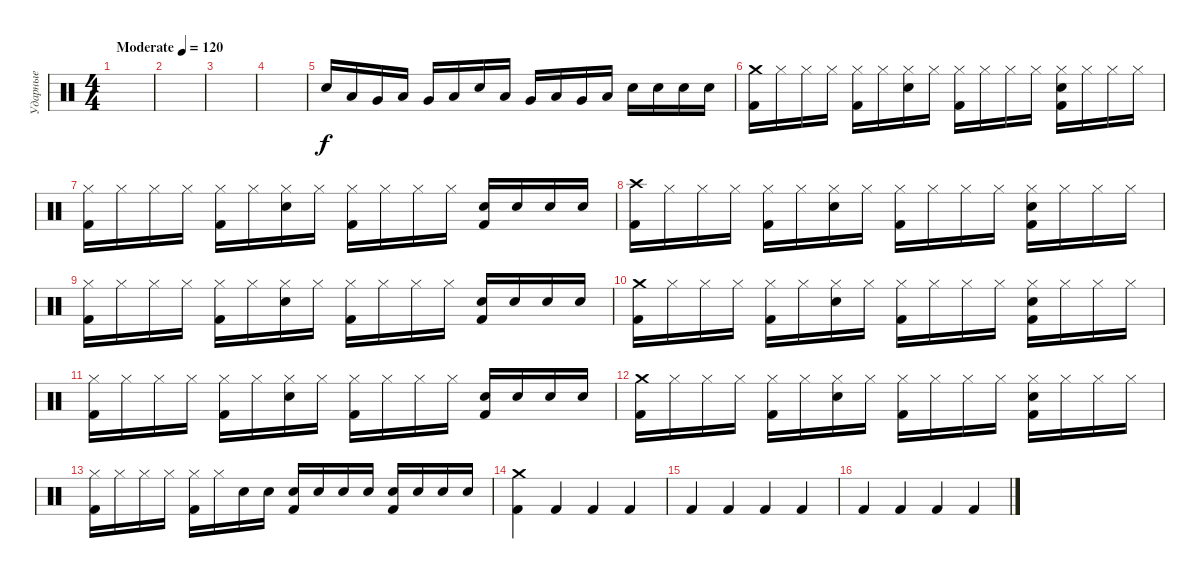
\track ("Ударные" "Ударные") {instrument percussion}
\staff {score}
\articulation defaults
\ts (4 4)
\tempo (120 "Moderate")
\clef neutral
\ks c
|
|
|
|
"Electric Snare (hit)".16 "Low Tom (hit)".16 "Very Low Tom (hit)".16 "Low Tom (hit)".16 "Very Low Tom (hit)".16 "Low Tom (hit)".16 "Electric Snare (hit)".16 "Low Tom (hit)".16 "Very Low Tom (hit)".16 "Low Tom (hit)".16 "Very Low Tom (hit)".16 "Low Tom (hit)".16 "Electric Snare (hit)".16 "Electric Snare (hit)".16 "Electric Snare (hit)".16 "Electric Snare (hit)".16 |
("Crash medium (hit)" "Kick (hit) 2").16 "Hi-Hat (closed)".16 "Hi-Hat (closed)".16 "Hi-Hat (closed)".16 ("Hi-Hat (closed)" "Kick (hit) 2").16 "Hi-Hat (closed)".16 ("Hi-Hat (closed)" "Electric Snare (hit)").16 "Hi-Hat (closed)".16 ("Hi-Hat (closed)" "Kick (hit) 2").16 "Hi-Hat (closed)".16 "Hi-Hat (closed)".16 "Hi-Hat (closed)".16 ("Hi-Hat (closed)" "Kick (hit) 2" "Electric Snare (hit)").16 "Hi-Hat (closed)".16 "Hi-Hat (closed)".16 "Hi-Hat (closed)".16 |
("Hi-Hat (closed)" "Kick (hit) 2").16 "Hi-Hat (closed)".16 "Hi-Hat (closed)".16 "Hi-Hat (closed)".16 ("Hi-Hat (closed)" "Kick (hit) 2").16 "Hi-Hat (closed)".16 ("Hi-Hat (closed)" "Electric Snare (hit)").16 "Hi-Hat (closed)".16 ("Hi-Hat (closed)" "Kick (hit) 2").16 "Hi-Hat (closed)".16 "Hi-Hat (closed)".16 "Hi-Hat (closed)".16 ("Kick (hit) 2" "Electric Snare (hit)").16 "Electric Snare (hit)".16 "Electric Snare (hit)".16 "Electric Snare (hit)".16 |
("Crash high (hit)" "Kick (hit) 2").16 "Hi-Hat (closed)".16 "Hi-Hat (closed)".16 "Hi-Hat (closed)".16 ("Hi-Hat (closed)" "Kick (hit) 2").16 "Hi-Hat (closed)".16 ("Hi-Hat (closed)" "Electric Snare (hit)").16 "Hi-Hat (closed)".16 ("Hi-Hat (closed)" "Kick (hit) 2").16 "Hi-Hat (closed)".16 "Hi-Hat (closed)".16 "Hi-Hat (closed)".16 ("Hi-Hat (closed)" "Electric Snare (hit)" "Kick (hit) 2").16 "Hi-Hat (closed)".16 "Hi-Hat (closed)".16 "Hi-Hat (closed)".16 |
("Hi-Hat (closed)" "Kick (hit) 2").16 "Hi-Hat (closed)".16 "Hi-Hat (closed)".16 "Hi-Hat (closed)".16 ("Hi-Hat (closed)" "Kick (hit) 2").16 "Hi-Hat (closed)".16 ("Hi-Hat (closed)" "Electric Snare (hit)").16 "Hi-Hat (closed)".16 ("Hi-Hat (closed)" "Kick (hit) 2").16 "Hi-Hat (closed)".16 "Hi-Hat (closed)".16 "Hi-Hat (closed)".16 ("Kick (hit) 2" "Electric Snare (hit)").16 "Electric Snare (hit)".16 "Electric Snare (hit)".16 "Electric Snare (hit)".16 |
("Crash medium (hit)" "Kick (hit) 2").16 "Hi-Hat (closed)".16 "Hi-Hat (closed)".16 "Hi-Hat (closed)".16 ("Hi-Hat (closed)" "Kick (hit) 2").16 "Hi-Hat (closed)".16 ("Hi-Hat (closed)" "Electric Snare (hit)").16 "Hi-Hat (closed)".16 ("Hi-Hat (closed)" "Kick (hit) 2").16 "Hi-Hat (closed)".16 "Hi-Hat (closed)".16 "Hi-Hat (closed)".16 ("Hi-Hat (closed)" "Kick (hit) 2" "Electric Snare (hit)").16 "Hi-Hat (closed)".16 "Hi-Hat (closed)".16 "Hi-Hat (closed)".16 |
("Hi-Hat (closed)" "Kick (hit) 2").16 "Hi-Hat (closed)".16 "Hi-Hat (closed)".16 "Hi-Hat (closed)".16 ("Hi-Hat (closed)" "Kick (hit) 2").16 "Hi-Hat (closed)".16 ("Hi-Hat (closed)" "Electric Snare (hit)").16 "Hi-Hat (closed)".16 ("Hi-Hat (closed)" "Kick (hit) 2").16 "Hi-Hat (closed)".16 "Hi-Hat (closed)".16 "Hi-Hat (closed)".16 ("Electric Snare (hit)" "Kick (hit) 2").16 "Electric Snare (hit)".16 "Electric Snare (hit)".16 "Electric Snare (hit)".16 |
("Crash medium (hit)" "Kick (hit) 2").16 "Hi-Hat (closed)".16 "Hi-Hat (closed)".16 "Hi-Hat (closed)".16 ("Hi-Hat (closed)" "Kick (hit) 2").16 "Hi-Hat (closed)".16 ("Hi-Hat (closed)" "Electric Snare (hit)").16 "Hi-Hat (closed)".16 ("Hi-Hat (closed)" "Kick (hit) 2").16 "Hi-Hat (closed)".16 "Hi-Hat (closed)".16 "Hi-Hat (closed)".16 ("Hi-Hat (closed)" "Kick (hit) 2" "Electric Snare (hit)").16 "Hi-Hat (closed)".16 "Hi-Hat (closed)".16 "Hi-Hat (closed)".16 |
("Hi-Hat (closed)" "Kick (hit) 2").16 "Hi-Hat (closed)".16 "Hi-Hat (closed)".16 "Hi-Hat (closed)".16 ("Hi-Hat (closed)" "Kick (hit) 2").16 "Hi-Hat (closed)".16 "Electric Snare (hit)".16 "Electric Snare (hit)".16 ("Electric Snare (hit)" "Kick (hit) 2").16 "Electric Snare (hit)".16 "Electric Snare (hit)".16 "Electric Snare (hit)".16 ("Electric Snare (hit)" "Kick (hit) 2").16 "Electric Snare (hit)".16 "Electric Snare (hit)".16 "Electric Snare (hit)".16 |
("Crash medium (hit)" "Kick (hit) 2").4 "Kick (hit) 2".4 "Kick (hit) 2".4 "Kick (hit) 2".4 |
"Kick (hit) 2".4 "Kick (hit) 2".4 "Kick (hit) 2".4 "Kick (hit) 2".4 |
"Kick (hit) 2".4 "Kick (hit) 2".4 "Kick (hit) 2".4 "Kick (hit) 2".4
